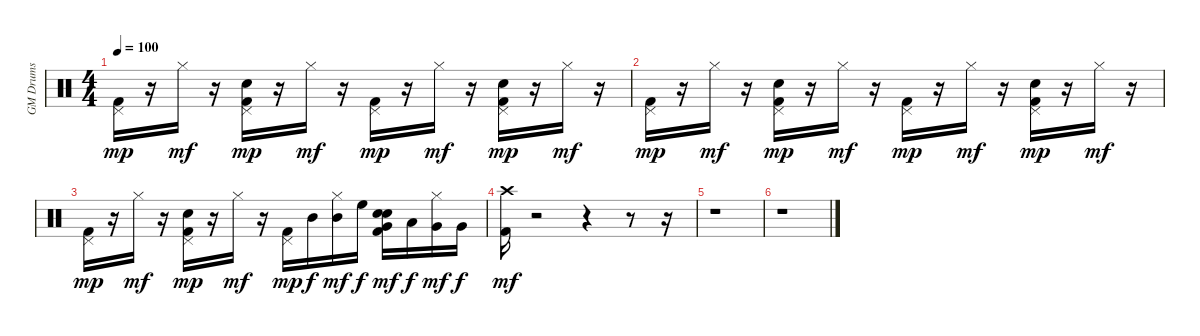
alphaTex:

\track ("GM Drums" "GM Drums") {instrument percussion}
\staff {score}
\articulation defaults
\ts (4 4)
\tempo 100
\clef neutral
\ks c
("Kick (hit) 2" "Pedal Hi-Hat (hit)").16{dy mp} r.16 "Hi-Hat (closed)".16{dy mf} r.16 ("Kick (hit) 2" "Snare (hit) 2" "Pedal Hi-Hat (hit)").16{dy mp} r.16 "Hi-Hat (closed)".16{dy mf} r.16 ("Kick (hit) 2" "Pedal Hi-Hat (hit)").16{dy mp} r.16 "Hi-Hat (closed)".16{dy mf} r.16 ("Kick (hit) 2" "Snare (hit) 2" "Pedal Hi-Hat (hit)").16{dy mp} r.16 "Hi-Hat (closed)".16{dy mf} r.16 |
("Kick (hit) 2" "Pedal Hi-Hat (hit)").16{dy mp} r.16 "Hi-Hat (closed)".16{dy mf} r.16 ("Kick (hit) 2" "Snare (hit) 2" "Pedal Hi-Hat (hit)").16{dy mp} r.16 "Hi-Hat (closed)".16{dy mf} r.16 ("Kick (hit) 2" "Pedal Hi-Hat (hit)").16{dy mp} r.16 "Hi-Hat (closed)".16{dy mf} r.16 ("Kick (hit) 2" "Snare (hit) 2" "Pedal Hi-Hat (hit)").16{dy mp} r.16 "Hi-Hat (closed)".16{dy mf} r.16 |
("Kick (hit) 2" "Pedal Hi-Hat (hit)").16{dy mp} r.16 "Hi-Hat (closed)".16{dy mf} r.16 ("Kick (hit) 2" "Snare (hit) 2" "Pedal Hi-Hat (hit)").16{dy mp} r.16 "Hi-Hat (closed)".16{dy mf} r.16 ("Kick (hit) 2" "Pedal Hi-Hat (hit)").16{dy mp} "Mid Tom (hit)".16{dy f} ("Hi-Hat (closed)" "Mid Tom (hit)").16{dy mf} "High Floor Tom (hit)".16{dy f} ("Kick (hit) 2" "Snare (hit) 2" "Snare (hit) 2" "Very Low Tom (hit)").16{dy mf} "Low Tom (hit)".16{dy f} ("Hi-Hat (closed)" "Very Low Tom (hit)").16{dy mf} "Very Low Tom (hit)".16{dy f} |
("Kick (hit) 2" "Crash high (hit)").16{dy mf} r.2 r.4 r.8 r.16 |
r.1 |
r.1
